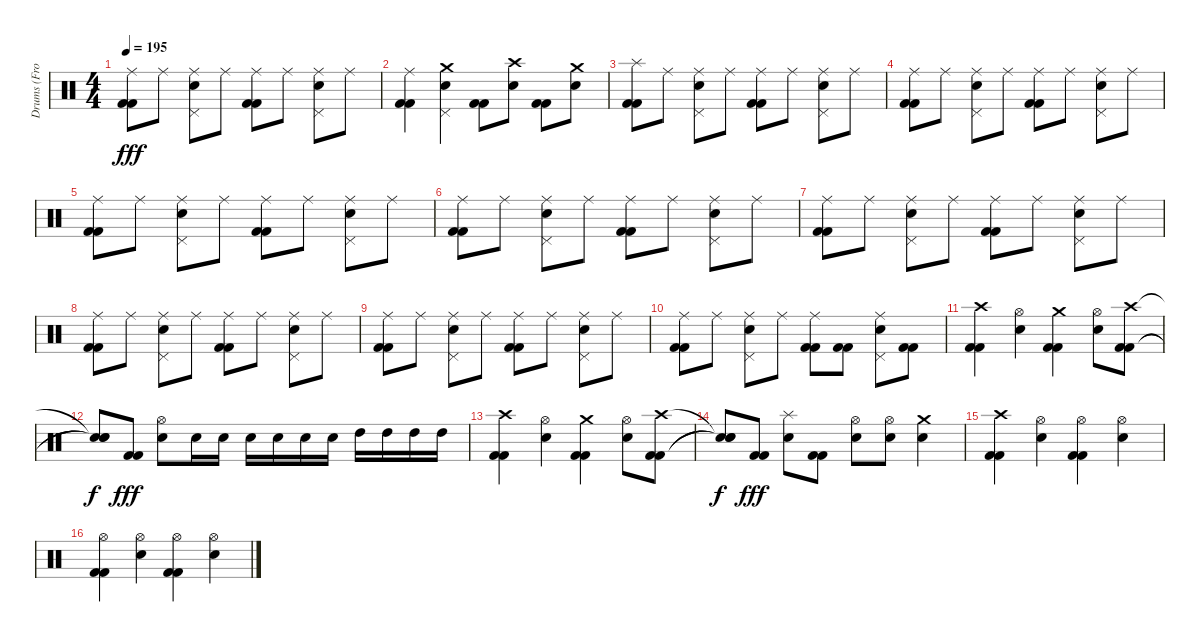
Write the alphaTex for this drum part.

\track ("Drums (From Other GP)" "Drums (Fro") {instrument percussion}
\staff {score}
\articulation defaults
\ts (4 4)
\tempo 195
\clef neutral
\ks c
("Ride (middle)" "Kick (hit) 2" "Kick (hit) 2").8{dy fff} "Ride (middle)".8 ("Ride (middle)" "Pedal Hi-Hat (hit)" "Electric Snare (hit)").8 "Ride (middle)".8 ("Ride (middle)" "Kick (hit) 2" "Kick (hit) 2").8 "Ride (middle)".8 ("Ride (middle)" "Pedal Hi-Hat (hit)" "Electric Snare (hit)").8 "Ride (middle)".8 |
("Ride (middle)" "Kick (hit) 2" "Kick (hit) 2").4 ("Crash medium (hit)" "Electric Snare (hit)" "Pedal Hi-Hat (hit)").4 ("Kick (hit) 2" "Kick (hit) 2").8 ("Crash high (hit)" "Electric Snare (hit)").8 ("Kick (hit) 2" "Kick (hit) 2").8 ("Crash medium (hit)" "Electric Snare (hit)").8 |
("Splash (hit)" "Kick (hit) 2" "Kick (hit) 2").8 "Ride (middle)".8 ("Ride (middle)" "Pedal Hi-Hat (hit)" "Electric Snare (hit)").8 "Ride (middle)".8 ("Ride (middle)" "Kick (hit) 2" "Kick (hit) 2").8 "Ride (middle)".8 ("Ride (middle)" "Pedal Hi-Hat (hit)" "Electric Snare (hit)").8 "Ride (middle)".8 |
("Ride (middle)" "Kick (hit) 2" "Kick (hit) 2").8 "Ride (middle)".8 ("Ride (middle)" "Pedal Hi-Hat (hit)" "Electric Snare (hit)").8 "Ride (middle)".8 ("Ride (middle)" "Kick (hit) 2" "Kick (hit) 2").8 "Ride (middle)".8 ("Ride (middle)" "Pedal Hi-Hat (hit)" "Electric Snare (hit)").8 "Ride (middle)".8 |
("Ride (middle)" "Kick (hit) 2" "Kick (hit) 2").8 "Ride (middle)".8 ("Ride (middle)" "Pedal Hi-Hat (hit)" "Electric Snare (hit)").8 "Ride (middle)".8 ("Ride (middle)" "Kick (hit) 2" "Kick (hit) 2").8 "Ride (middle)".8 ("Ride (middle)" "Pedal Hi-Hat (hit)" "Electric Snare (hit)").8 "Ride (middle)".8 |
("Ride (middle)" "Kick (hit) 2" "Kick (hit) 2").8 "Ride (middle)".8 ("Ride (middle)" "Pedal Hi-Hat (hit)" "Electric Snare (hit)").8 "Ride (middle)".8 ("Ride (middle)" "Kick (hit) 2" "Kick (hit) 2").8 "Ride (middle)".8 ("Ride (middle)" "Pedal Hi-Hat (hit)" "Electric Snare (hit)").8 "Ride (middle)".8 |
("Ride (middle)" "Kick (hit) 2" "Kick (hit) 2").8 "Ride (middle)".8 ("Ride (middle)" "Pedal Hi-Hat (hit)" "Electric Snare (hit)").8 "Ride (middle)".8 ("Ride (middle)" "Kick (hit) 2" "Kick (hit) 2").8 "Ride (middle)".8 ("Ride (middle)" "Pedal Hi-Hat (hit)" "Electric Snare (hit)").8 "Ride (middle)".8 |
("Ride (middle)" "Kick (hit) 2" "Kick (hit) 2").8 "Ride (middle)".8 ("Ride (middle)" "Pedal Hi-Hat (hit)" "Electric Snare (hit)").8 "Ride (middle)".8 ("Ride (middle)" "Kick (hit) 2" "Kick (hit) 2").8 "Ride (middle)".8 ("Ride (middle)" "Pedal Hi-Hat (hit)" "Electric Snare (hit)").8 "Ride (middle)".8 |
("Ride (middle)" "Kick (hit) 2" "Kick (hit) 2").8 "Ride (middle)".8 ("Ride (middle)" "Pedal Hi-Hat (hit)" "Electric Snare (hit)").8 "Ride (middle)".8 ("Ride (middle)" "Kick (hit) 2" "Kick (hit) 2").8 "Ride (middle)".8 ("Ride (middle)" "Pedal Hi-Hat (hit)" "Electric Snare (hit)").8 "Ride (middle)".8 |
("Ride (middle)" "Kick (hit) 2" "Kick (hit) 2").8 "Ride (middle)".8 ("Ride (middle)" "Pedal Hi-Hat (hit)" "Electric Snare (hit)").8 "Ride (middle)".8 ("Ride (middle)" "Kick (hit) 2" "Kick (hit) 2").8 ("Kick (hit) 2" "Kick (hit) 2").8 ("Ride (middle)" "Pedal Hi-Hat (hit)" "Electric Snare (hit)").8 ("Kick (hit) 2" "Kick (hit) 2").8 |
("Crash high (hit)" "Kick (hit) 2" "Kick (hit) 2").4 ("Hi-Hat (open)" "Electric Snare (hit)").4 ("Crash medium (hit)" "Kick (hit) 2" "Kick (hit) 2").4 ("Hi-Hat (open)" "Electric Snare (hit)").8 ("Crash high (hit)" "Kick (hit) 2" "Kick (hit) 2").8 |
("Snare (hit)"{t} "Snare (hit)"{t} "Snare (hit)"{t}).8{dy f} ("Kick (hit) 2" "Kick (hit) 2").8{dy fff} ("Hi-Hat (open)" "Electric Snare (hit)").8 "Electric Snare (hit)".16 "Electric Snare (hit)".16 "Electric Snare (hit)".16 "Electric Snare (hit)".16 "Electric Snare (hit)".16 "Electric Snare (hit)".16 "High Tom (hit)".16 "High Tom (hit)".16 "High Tom (hit)".16 "High Tom (hit)".16 |
("Crash high (hit)" "Kick (hit) 2" "Kick (hit) 2").4 ("Hi-Hat (open)" "Electric Snare (hit)").4 ("Crash medium (hit)" "Kick (hit) 2" "Kick (hit) 2").4 ("Hi-Hat (open)" "Electric Snare (hit)").8 ("Crash high (hit)" "Kick (hit) 2" "Kick (hit) 2").8 |
("Snare (hit)"{t} "Snare (hit)"{t} "Snare (hit)"{t}).8{dy f} ("Kick (hit) 2" "Kick (hit) 2").8{dy fff} ("Splash (hit)" "Electric Snare (hit)").8 ("Kick (hit) 2" "Kick (hit) 2").8 ("Hi-Hat (open)" "Electric Snare (hit)").8 ("Hi-Hat (open)" "Electric Snare (hit)").8 ("Crash medium (hit)" "Electric Snare (hit)").4 |
("Crash high (hit)" "Kick (hit) 2" "Kick (hit) 2").4 ("Hi-Hat (open)" "Electric Snare (hit)").4 ("Hi-Hat (open)" "Kick (hit) 2" "Kick (hit) 2").4 ("Hi-Hat (open)" "Electric Snare (hit)").4 |
("Hi-Hat (open)" "Kick (hit) 2" "Kick (hit) 2").4 ("Hi-Hat (open)" "Electric Snare (hit)").4 ("Hi-Hat (open)" "Kick (hit) 2" "Kick (hit) 2").4 ("Hi-Hat (open)" "Electric Snare (hit)").4
